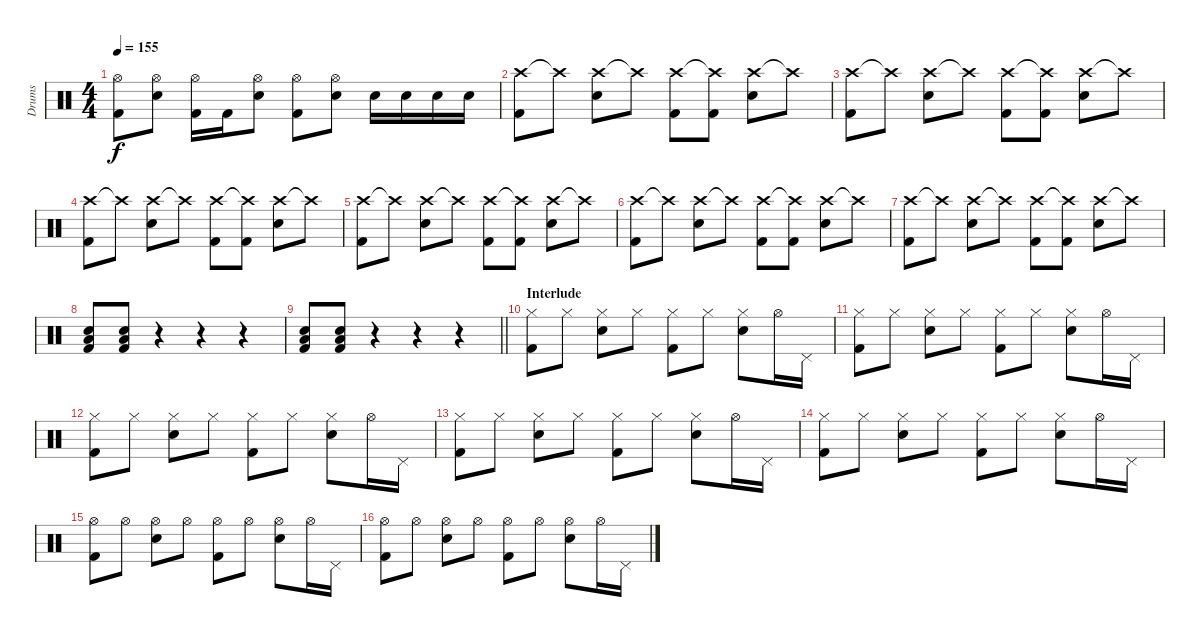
\track ("Drums" "Drums") {instrument percussion}
\staff {score}
\articulation defaults
\ts (4 4)
\tempo 155
\clef neutral
\ks c
("Hi-Hat (open)" "Kick (hit) 2").8{dy f} ("Hi-Hat (open)" "Electric Snare (hit)").8 ("Hi-Hat (open)" "Kick (hit) 2").16 "Kick (hit) 2".16 ("Hi-Hat (open)" "Electric Snare (hit)").8 ("Hi-Hat (open)" "Kick (hit) 2").8 ("Hi-Hat (open)" "Electric Snare (hit)").8 "Electric Snare (hit)".16 "Electric Snare (hit)".16 "Electric Snare (hit)".16 "Electric Snare (hit)".16 |
("Crash high (hit)" "Kick (hit) 2").8 "Crash high (hit)"{t}.8 ("Crash high (hit)" "Electric Snare (hit)").8 "Crash high (hit)"{t}.8 ("Crash high (hit)" "Kick (hit) 2").8 ("Crash high (hit)"{t} "Kick (hit) 2").8 ("Crash high (hit)" "Electric Snare (hit)").8 "Crash high (hit)"{t}.8 |
("Crash high (hit)" "Kick (hit) 2").8 "Crash high (hit)"{t}.8 ("Crash high (hit)" "Electric Snare (hit)").8 "Crash high (hit)"{t}.8 ("Crash high (hit)" "Kick (hit) 2").8 ("Crash high (hit)"{t} "Kick (hit) 2").8 ("Crash high (hit)" "Electric Snare (hit)").8 "Crash high (hit)"{t}.8 |
("Crash high (hit)" "Kick (hit) 2").8 "Crash high (hit)"{t}.8 ("Crash high (hit)" "Electric Snare (hit)").8 "Crash high (hit)"{t}.8 ("Crash high (hit)" "Kick (hit) 2").8 ("Crash high (hit)"{t} "Kick (hit) 2").8 ("Crash high (hit)" "Electric Snare (hit)").8 "Crash high (hit)"{t}.8 |
("Crash high (hit)" "Kick (hit) 2").8 "Crash high (hit)"{t}.8 ("Crash high (hit)" "Electric Snare (hit)").8 "Crash high (hit)"{t}.8 ("Crash high (hit)" "Kick (hit) 2").8 ("Crash high (hit)"{t} "Kick (hit) 2").8 ("Crash high (hit)" "Electric Snare (hit)").8 "Crash high (hit)"{t}.8 |
("Crash high (hit)" "Kick (hit) 2").8 "Crash high (hit)"{t}.8 ("Crash high (hit)" "Electric Snare (hit)").8 "Crash high (hit)"{t}.8 ("Crash high (hit)" "Kick (hit) 2").8 ("Crash high (hit)"{t} "Kick (hit) 2").8 ("Crash high (hit)" "Electric Snare (hit)").8 "Crash high (hit)"{t}.8 |
("Crash high (hit)" "Kick (hit) 2").8 "Crash high (hit)"{t}.8 ("Crash high (hit)" "Electric Snare (hit)").8 "Crash high (hit)"{t}.8 ("Crash high (hit)" "Kick (hit) 2").8 ("Crash high (hit)"{t} "Kick (hit) 2").8 ("Crash high (hit)" "Electric Snare (hit)").8 "Crash high (hit)"{t}.8 |
("Low Floor Tom (hit)" "Electric Snare (hit)" "Kick (hit) 2").8 ("Low Floor Tom (hit)" "Electric Snare (hit)" "Kick (hit) 2").8 r.4 r.4 r.4 |
\barLineRight lightlight
("Low Floor Tom (hit)" "Electric Snare (hit)" "Kick (hit) 2").8 ("Low Floor Tom (hit)" "Electric Snare (hit)" "Kick (hit) 2").8 r.4 r.4 r.4 |
\section ("" "Interlude")
("Hi-Hat (closed)" "Kick (hit) 2").8 "Hi-Hat (closed)".8 ("Hi-Hat (closed)" "Electric Snare (hit)").8 "Hi-Hat (closed)".8 ("Hi-Hat (closed)" "Kick (hit) 2").8 "Hi-Hat (closed)".8 ("Hi-Hat (closed)" "Electric Snare (hit)").8 "Hi-Hat (open)".16 "Pedal Hi-Hat (hit)".16 |
("Hi-Hat (closed)" "Kick (hit) 2").8 "Hi-Hat (closed)".8 ("Hi-Hat (closed)" "Electric Snare (hit)").8 "Hi-Hat (closed)".8 ("Hi-Hat (closed)" "Kick (hit) 2").8 "Hi-Hat (closed)".8 ("Hi-Hat (closed)" "Electric Snare (hit)").8 "Hi-Hat (open)".16 "Pedal Hi-Hat (hit)".16 |
("Hi-Hat (closed)" "Kick (hit) 2").8 "Hi-Hat (closed)".8 ("Hi-Hat (closed)" "Electric Snare (hit)").8 "Hi-Hat (closed)".8 ("Hi-Hat (closed)" "Kick (hit) 2").8 "Hi-Hat (closed)".8 ("Hi-Hat (closed)" "Electric Snare (hit)").8 "Hi-Hat (open)".16 "Pedal Hi-Hat (hit)".16 |
("Hi-Hat (closed)" "Kick (hit) 2").8 "Hi-Hat (closed)".8 ("Hi-Hat (closed)" "Electric Snare (hit)").8 "Hi-Hat (closed)".8 ("Hi-Hat (closed)" "Kick (hit) 2").8 "Hi-Hat (closed)".8 ("Hi-Hat (closed)" "Electric Snare (hit)").8 "Hi-Hat (open)".16 "Pedal Hi-Hat (hit)".16 |
("Hi-Hat (closed)" "Kick (hit) 2").8 "Hi-Hat (closed)".8 ("Hi-Hat (closed)" "Electric Snare (hit)").8 "Hi-Hat (closed)".8 ("Hi-Hat (closed)" "Kick (hit) 2").8 "Hi-Hat (closed)".8 ("Hi-Hat (closed)" "Electric Snare (hit)").8 "Hi-Hat (open)".16 "Pedal Hi-Hat (hit)".16 |
("Hi-Hat (open)" "Kick (hit) 2").8 "Hi-Hat (open)".8 ("Hi-Hat (open)" "Electric Snare (hit)").8 "Hi-Hat (open)".8 ("Hi-Hat (open)" "Kick (hit) 2").8 "Hi-Hat (open)".8 ("Hi-Hat (open)" "Electric Snare (hit)").8 "Hi-Hat (open)".16 "Pedal Hi-Hat (hit)".16 |
("Hi-Hat (open)" "Kick (hit) 2").8 "Hi-Hat (open)".8 ("Hi-Hat (open)" "Electric Snare (hit)").8 "Hi-Hat (open)".8 ("Hi-Hat (open)" "Kick (hit) 2").8 "Hi-Hat (open)".8 ("Hi-Hat (open)" "Electric Snare (hit)").8 "Hi-Hat (open)".16 "Pedal Hi-Hat (hit)".16
